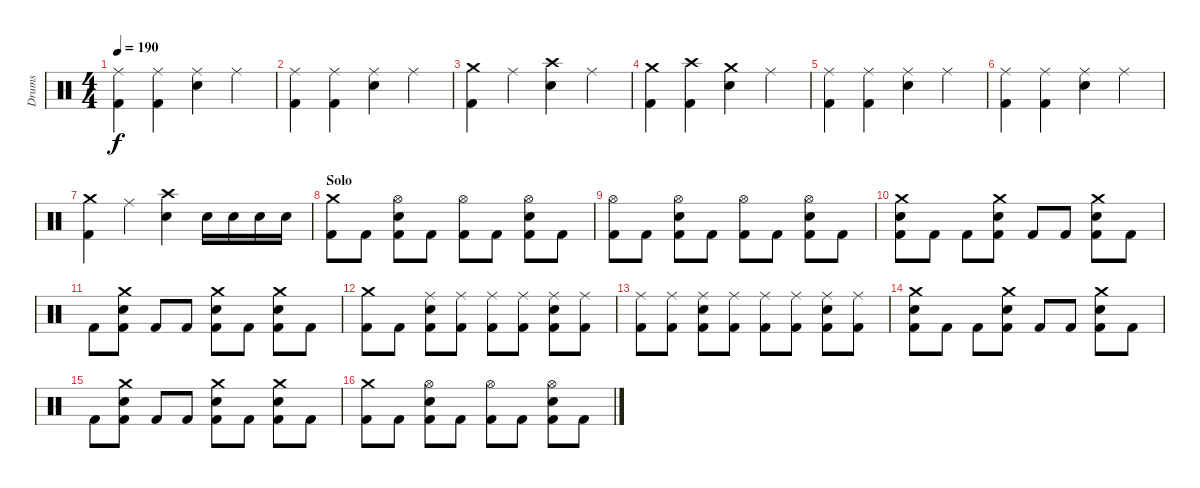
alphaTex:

\track ("Drums" "Drums") {instrument percussion}
\staff {score}
\articulation defaults
\ts (4 4)
\tempo 190
\clef neutral
\ks c
("Kick (hit) 2" "Ride (middle)").4{dy f} ("Kick (hit) 2" "Ride (middle)").4 ("Electric Snare (hit)" "Ride (middle)").4 "Ride (middle)".4 |
("Kick (hit) 2" "Ride (middle)").4 ("Kick (hit) 2" "Ride (middle)").4 ("Electric Snare (hit)" "Ride (middle)").4 "Ride (middle)".4 |
("Kick (hit) 2" "Crash medium (hit)").4 "Ride (middle)".4 ("Electric Snare (hit)" "Crash high (hit)").4 "Ride (middle)".4 |
("Kick (hit) 2" "Crash medium (hit)").4 ("Kick (hit) 2" "Crash high (hit)").4 ("Electric Snare (hit)" "Crash medium (hit)").4 "Ride (middle)".4 |
("Kick (hit) 2" "Ride (middle)").4 ("Kick (hit) 2" "Ride (middle)").4 ("Electric Snare (hit)" "Ride (middle)").4 "Ride (middle)".4 |
("Kick (hit) 2" "Ride (middle)").4 ("Kick (hit) 2" "Ride (middle)").4 ("Electric Snare (hit)" "Ride (middle)").4 "Ride (middle)".4 |
("Kick (hit) 2" "Crash medium (hit)").4 "Ride (middle)".4 ("Electric Snare (hit)" "Crash high (hit)").4 "Electric Snare (hit)".16 "Electric Snare (hit)".16 "Electric Snare (hit)".16 "Electric Snare (hit)".16 |
\section ("" "Solo")
("Kick (hit) 2" "Crash medium (hit)").8 "Kick (hit) 2".8 ("Kick (hit) 2" "Electric Snare (hit)" "Hi-Hat (open)").8 "Kick (hit) 2".8 ("Kick (hit) 2" "Hi-Hat (open)").8 "Kick (hit) 2".8 ("Kick (hit) 2" "Electric Snare (hit)" "Hi-Hat (open)").8 "Kick (hit) 2".8 |
("Kick (hit) 2" "Hi-Hat (open)").8 "Kick (hit) 2".8 ("Kick (hit) 2" "Electric Snare (hit)" "Hi-Hat (open)").8 "Kick (hit) 2".8 ("Kick (hit) 2" "Hi-Hat (open)").8 "Kick (hit) 2".8 ("Kick (hit) 2" "Electric Snare (hit)" "Hi-Hat (open)").8 "Kick (hit) 2".8 |
("Kick (hit) 2" "Electric Snare (hit)" "Crash medium (hit)").8 "Kick (hit) 2".8 "Kick (hit) 2".8 ("Kick (hit) 2" "Electric Snare (hit)" "Crash medium (hit)").8 "Kick (hit) 2".8 "Kick (hit) 2".8 ("Kick (hit) 2" "Electric Snare (hit)" "Crash medium (hit)").8 "Kick (hit) 2".8 |
"Kick (hit) 2".8 ("Kick (hit) 2" "Electric Snare (hit)" "Crash medium (hit)").8 "Kick (hit) 2".8 "Kick (hit) 2".8 ("Kick (hit) 2" "Electric Snare (hit)" "Crash medium (hit)").8 "Kick (hit) 2".8 ("Kick (hit) 2" "Electric Snare (hit)" "Crash medium (hit)").8 "Kick (hit) 2".8 |
("Kick (hit) 2" "Crash medium (hit)").8 "Kick (hit) 2".8 ("Kick (hit) 2" "Electric Snare (hit)" "Ride (middle)").8 ("Kick (hit) 2" "Ride (middle)").8 ("Kick (hit) 2" "Ride (middle)").8 ("Kick (hit) 2" "Ride (middle)").8 ("Kick (hit) 2" "Electric Snare (hit)" "Ride (middle)").8 ("Kick (hit) 2" "Ride (middle)").8 |
("Kick (hit) 2" "Ride (middle)").8 ("Kick (hit) 2" "Ride (middle)").8 ("Kick (hit) 2" "Electric Snare (hit)" "Ride (middle)").8 ("Kick (hit) 2" "Ride (middle)").8 ("Kick (hit) 2" "Ride (middle)").8 ("Kick (hit) 2" "Ride (middle)").8 ("Kick (hit) 2" "Electric Snare (hit)" "Ride (middle)").8 ("Kick (hit) 2" "Ride (middle)").8 |
("Kick (hit) 2" "Electric Snare (hit)" "Crash medium (hit)").8 "Kick (hit) 2".8 "Kick (hit) 2".8 ("Kick (hit) 2" "Electric Snare (hit)" "Crash medium (hit)").8 "Kick (hit) 2".8 "Kick (hit) 2".8 ("Kick (hit) 2" "Electric Snare (hit)" "Crash medium (hit)").8 "Kick (hit) 2".8 |
"Kick (hit) 2".8 ("Kick (hit) 2" "Electric Snare (hit)" "Crash medium (hit)").8 "Kick (hit) 2".8 "Kick (hit) 2".8 ("Kick (hit) 2" "Electric Snare (hit)" "Crash medium (hit)").8 "Kick (hit) 2".8 ("Kick (hit) 2" "Electric Snare (hit)" "Crash medium (hit)").8 "Kick (hit) 2".8 |
("Kick (hit) 2" "Crash medium (hit)").8 "Kick (hit) 2".8 ("Kick (hit) 2" "Electric Snare (hit)" "Hi-Hat (open)").8 "Kick (hit) 2".8 ("Kick (hit) 2" "Hi-Hat (open)").8 "Kick (hit) 2".8 ("Kick (hit) 2" "Electric Snare (hit)" "Hi-Hat (open)").8 "Kick (hit) 2".8
